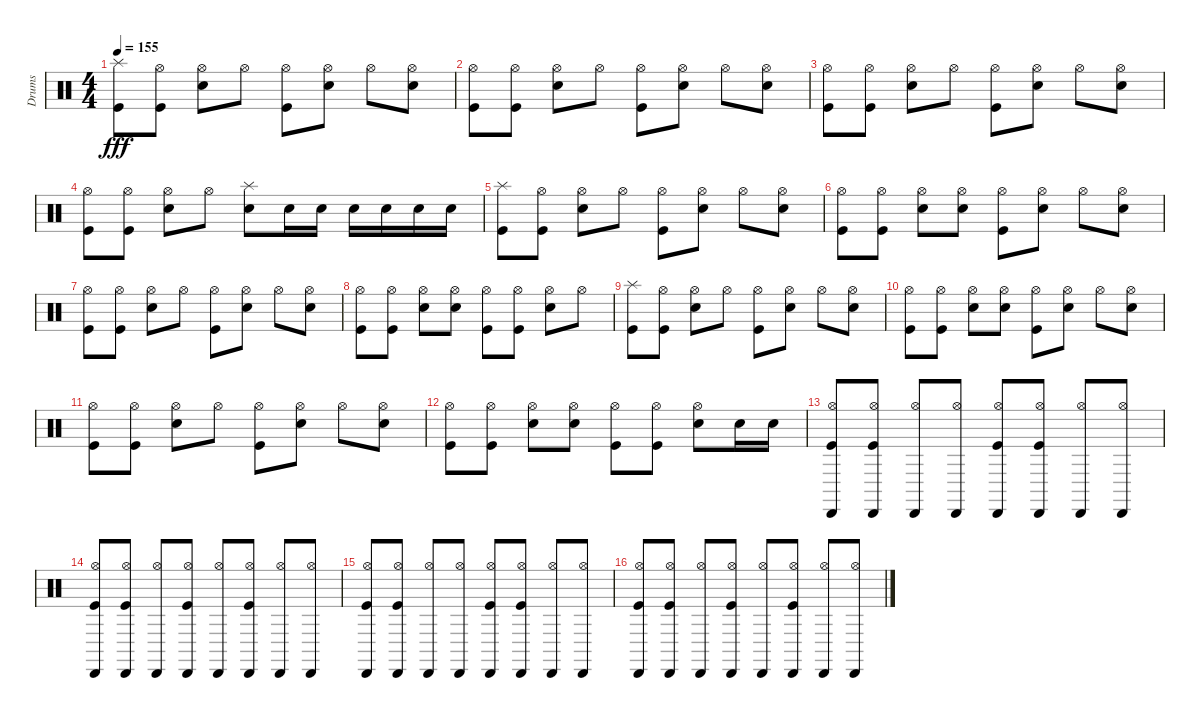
\track ("Drums" "Drums") {instrument percussion}
\staff {score}
\articulation defaults
\ts (4 4)
\tempo 155
\clef neutral
\ks c
("Splash (hit)" "Kick (hit)").8{dy fff} ("Hi-Hat (open)" "Kick (hit)").8 ("Hi-Hat (open)" "Snare (hit) 2").8 "Hi-Hat (open)".8 ("Hi-Hat (open)" "Kick (hit)").8 ("Hi-Hat (open)" "Snare (hit) 2").8 "Hi-Hat (open)".8 ("Hi-Hat (open)" "Snare (hit) 2").8 |
("Hi-Hat (open)" "Kick (hit)").8 ("Hi-Hat (open)" "Kick (hit)").8 ("Hi-Hat (open)" "Snare (hit) 2").8 "Hi-Hat (open)".8 ("Hi-Hat (open)" "Kick (hit)").8 ("Hi-Hat (open)" "Snare (hit) 2").8 "Hi-Hat (open)".8 ("Hi-Hat (open)" "Snare (hit) 2").8 |
("Hi-Hat (open)" "Kick (hit)").8 ("Hi-Hat (open)" "Kick (hit)").8 ("Hi-Hat (open)" "Snare (hit) 2").8 "Hi-Hat (open)".8 ("Hi-Hat (open)" "Kick (hit)").8 ("Hi-Hat (open)" "Snare (hit) 2").8 "Hi-Hat (open)".8 ("Hi-Hat (open)" "Snare (hit) 2").8 |
("Hi-Hat (open)" "Kick (hit)").8 ("Hi-Hat (open)" "Kick (hit)").8 ("Hi-Hat (open)" "Snare (hit) 2").8 "Hi-Hat (open)".8 ("Splash (hit)" "Snare (hit) 2").8 "Snare (hit) 2".16 "Snare (hit) 2".16 "Snare (hit) 2".16 "Snare (hit) 2".16 "Snare (hit) 2".16 "Snare (hit) 2".16 |
("Splash (hit)" "Kick (hit)").8 ("Hi-Hat (open)" "Kick (hit)").8 ("Hi-Hat (open)" "Snare (hit) 2").8 "Hi-Hat (open)".8 ("Hi-Hat (open)" "Kick (hit)").8 ("Hi-Hat (open)" "Snare (hit) 2").8 "Hi-Hat (open)".8 ("Hi-Hat (open)" "Snare (hit) 2").8 |
("Hi-Hat (open)" "Kick (hit)").8 ("Hi-Hat (open)" "Kick (hit)").8 ("Hi-Hat (open)" "Snare (hit) 2").8 ("Hi-Hat (open)" "Snare (hit) 2").8 ("Hi-Hat (open)" "Kick (hit)").8 ("Hi-Hat (open)" "Snare (hit) 2").8 "Hi-Hat (open)".8 ("Hi-Hat (open)" "Snare (hit) 2").8 |
("Hi-Hat (open)" "Kick (hit)").8 ("Hi-Hat (open)" "Kick (hit)").8 ("Hi-Hat (open)" "Snare (hit) 2").8 "Hi-Hat (open)".8 ("Hi-Hat (open)" "Kick (hit)").8 ("Hi-Hat (open)" "Snare (hit) 2").8 "Hi-Hat (open)".8 ("Hi-Hat (open)" "Snare (hit) 2").8 |
("Hi-Hat (open)" "Kick (hit)").8 ("Hi-Hat (open)" "Kick (hit)").8 ("Hi-Hat (open)" "Snare (hit) 2").8 ("Hi-Hat (open)" "Snare (hit) 2").8 ("Hi-Hat (open)" "Kick (hit)").8 ("Hi-Hat (open)" "Kick (hit)").8 ("Hi-Hat (open)" "Snare (hit) 2").8 "Hi-Hat (open)".8 |
("Splash (hit)" "Kick (hit)").8 ("Hi-Hat (open)" "Kick (hit)").8 ("Hi-Hat (open)" "Snare (hit) 2").8 "Hi-Hat (open)".8 ("Hi-Hat (open)" "Kick (hit)").8 ("Hi-Hat (open)" "Snare (hit) 2").8 "Hi-Hat (open)".8 ("Hi-Hat (open)" "Snare (hit) 2").8 |
("Hi-Hat (open)" "Kick (hit)").8 ("Hi-Hat (open)" "Kick (hit)").8 ("Hi-Hat (open)" "Snare (hit) 2").8 ("Hi-Hat (open)" "Snare (hit) 2").8 ("Hi-Hat (open)" "Kick (hit)").8 ("Hi-Hat (open)" "Snare (hit) 2").8 "Hi-Hat (open)".8 ("Hi-Hat (open)" "Snare (hit) 2").8 |
("Hi-Hat (open)" "Kick (hit)").8 ("Hi-Hat (open)" "Kick (hit)").8 ("Hi-Hat (open)" "Snare (hit) 2").8 "Hi-Hat (open)".8 ("Hi-Hat (open)" "Kick (hit)").8 ("Hi-Hat (open)" "Snare (hit) 2").8 "Hi-Hat (open)".8 ("Hi-Hat (open)" "Snare (hit) 2").8 |
("Hi-Hat (open)" "Kick (hit)").8 ("Hi-Hat (open)" "Kick (hit)").8 ("Hi-Hat (open)" "Snare (hit) 2").8 ("Hi-Hat (open)" "Snare (hit) 2").8 ("Hi-Hat (open)" "Kick (hit)").8 ("Hi-Hat (open)" "Kick (hit)").8 ("Hi-Hat (open)" "Snare (hit) 2").8 "Snare (hit) 2".16 "Snare (hit) 2".16 |
("Hi-Hat (open)" "Cabasa (hit)" "Kick (hit)").8 ("Hi-Hat (open)" "Cabasa (hit)" "Kick (hit)").8 ("Hi-Hat (open)" "Cabasa (hit)").8 ("Hi-Hat (open)" "Cabasa (hit)").8 ("Hi-Hat (open)" "Cabasa (hit)" "Kick (hit)").8 ("Hi-Hat (open)" "Cabasa (hit)" "Kick (hit)").8 ("Hi-Hat (open)" "Cabasa (hit)").8 ("Hi-Hat (open)" "Cabasa (hit)").8 |
("Hi-Hat (open)" "Cabasa (hit)" "Kick (hit)").8 ("Hi-Hat (open)" "Cabasa (hit)" "Kick (hit)").8 ("Hi-Hat (open)" "Cabasa (hit)").8 ("Hi-Hat (open)" "Cabasa (hit)" "Kick (hit)").8 ("Hi-Hat (open)" "Cabasa (hit)").8 ("Hi-Hat (open)" "Cabasa (hit)" "Kick (hit)").8 ("Hi-Hat (open)" "Cabasa (hit)").8 ("Hi-Hat (open)" "Cabasa (hit)").8 |
("Hi-Hat (open)" "Cabasa (hit)" "Kick (hit)").8 ("Hi-Hat (open)" "Cabasa (hit)" "Kick (hit)").8 ("Hi-Hat (open)" "Cabasa (hit)").8 ("Hi-Hat (open)" "Cabasa (hit)").8 ("Hi-Hat (open)" "Cabasa (hit)" "Kick (hit)").8 ("Hi-Hat (open)" "Cabasa (hit)" "Kick (hit)").8 ("Hi-Hat (open)" "Cabasa (hit)").8 ("Hi-Hat (open)" "Cabasa (hit)").8 |
("Hi-Hat (open)" "Cabasa (hit)" "Kick (hit)").8 ("Hi-Hat (open)" "Cabasa (hit)" "Kick (hit)").8 ("Hi-Hat (open)" "Cabasa (hit)").8 ("Hi-Hat (open)" "Cabasa (hit)" "Kick (hit)").8 ("Hi-Hat (open)" "Cabasa (hit)").8 ("Hi-Hat (open)" "Cabasa (hit)" "Kick (hit)").8 ("Hi-Hat (open)" "Cabasa (hit)").8 ("Hi-Hat (open)" "Cabasa (hit)").8
